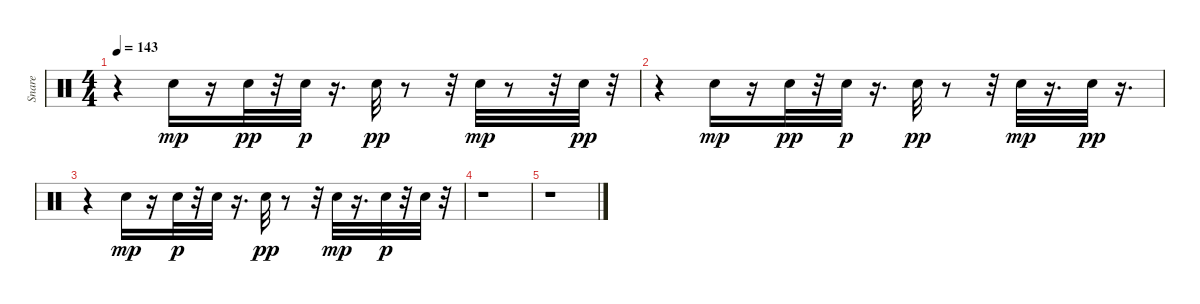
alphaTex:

\track ("Snare    " "Snare    ") {instrument percussion}
\staff {score}
\articulation defaults
\ts (4 4)
\tempo 143
\clef neutral
\ks c
r.4{dy pp} "Electric Snare (hit)".16{dy mp} r.16 "Electric Snare (hit)".32{dy pp} r.32 "Snare (hit) 2".32{dy p} r.16{d} "Electric Snare (hit)".32{dy pp} r.8 r.32 "Electric Snare (hit)".32{dy mp} r.8 r.32 "Electric Snare (hit)".32{dy pp} r.32 |
r.4 "Electric Snare (hit)".16{dy mp} r.16 "Electric Snare (hit)".32{dy pp} r.32 "Snare (hit) 2".32{dy p} r.16{d} "Electric Snare (hit)".32{dy pp} r.8 r.32 "Electric Snare (hit)".32{dy mp} r.16{d} "Electric Snare (hit)".32{dy pp} r.16{d} |
r.4 "Electric Snare (hit)".16{dy mp} r.16 "Electric Snare (hit)".32{dy p} r.32 "Snare (hit) 2".32 r.16{d} "Electric Snare (hit)".32{dy pp} r.8 r.32 "Electric Snare (hit)".32{dy mp} r.16{d} "Snare (hit) 2".32{dy p} r.32 "Snare (hit) 2".32 r.32 |
r.1 |
r.1
